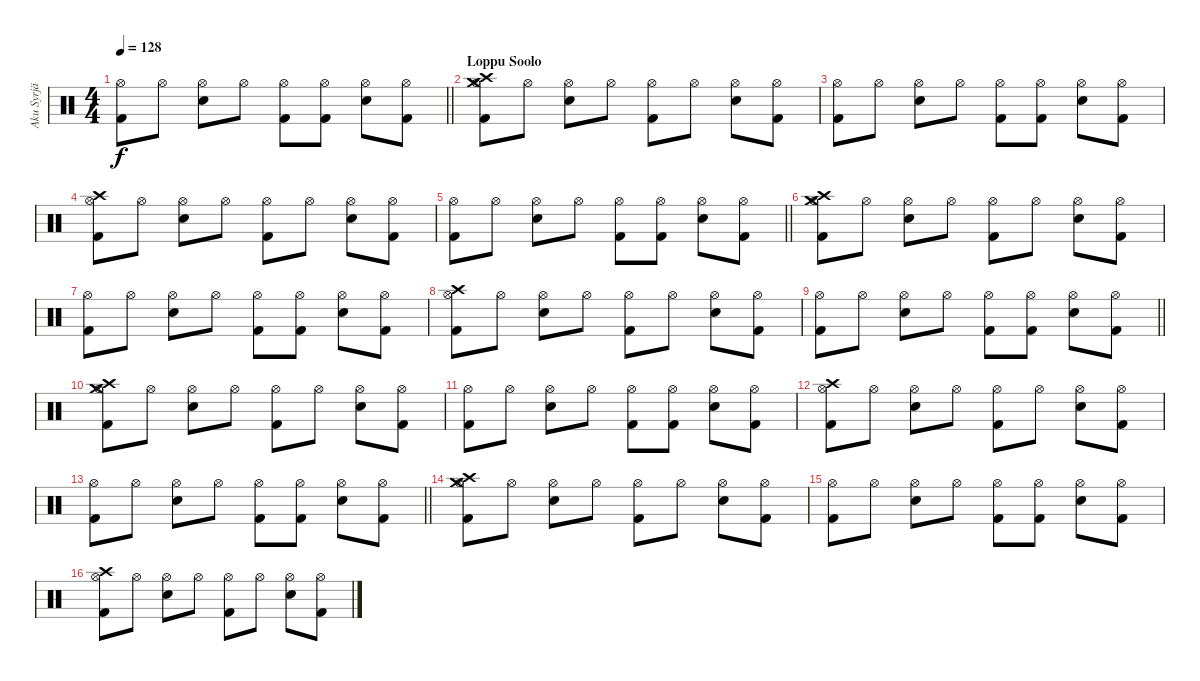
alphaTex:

\track ("Aku Syrjä" "Aku Syrjä") {instrument percussion}
\staff {score}
\articulation defaults
\ts (4 4)
\tempo 128
\clef neutral
\barLineRight lightlight
\ks c
("Hi-Hat (open)" "Kick (hit) 2").8{dy f} "Hi-Hat (open)".8 ("Hi-Hat (open)" "Electric Snare (hit)").8 "Hi-Hat (open)".8 ("Hi-Hat (open)" "Kick (hit) 2").8 ("Hi-Hat (open)" "Kick (hit) 2").8 ("Hi-Hat (open)" "Electric Snare (hit)").8 ("Hi-Hat (open)" "Kick (hit) 2").8 |
\section ("" "Loppu Soolo")
("Crash high (hit)" "Crash medium (hit)" "Hi-Hat (open)" "Kick (hit) 2").8 "Hi-Hat (open)".8 ("Hi-Hat (open)" "Electric Snare (hit)").8 "Hi-Hat (open)".8 ("Hi-Hat (open)" "Kick (hit) 2").8 "Hi-Hat (open)".8 ("Hi-Hat (open)" "Electric Snare (hit)").8 ("Hi-Hat (open)" "Kick (hit) 2").8 |
("Hi-Hat (open)" "Kick (hit) 2").8 "Hi-Hat (open)".8 ("Hi-Hat (open)" "Electric Snare (hit)").8 "Hi-Hat (open)".8 ("Hi-Hat (open)" "Kick (hit) 2").8 ("Hi-Hat (open)" "Kick (hit) 2").8 ("Hi-Hat (open)" "Electric Snare (hit)").8 ("Hi-Hat (open)" "Kick (hit) 2").8 |
("Crash high (hit)" "Hi-Hat (open)" "Kick (hit) 2").8 "Hi-Hat (open)".8 ("Hi-Hat (open)" "Electric Snare (hit)").8 "Hi-Hat (open)".8 ("Hi-Hat (open)" "Kick (hit) 2").8 "Hi-Hat (open)".8 ("Hi-Hat (open)" "Electric Snare (hit)").8 ("Hi-Hat (open)" "Kick (hit) 2").8 |
\barLineRight lightlight
("Hi-Hat (open)" "Kick (hit) 2").8 "Hi-Hat (open)".8 ("Hi-Hat (open)" "Electric Snare (hit)").8 "Hi-Hat (open)".8 ("Hi-Hat (open)" "Kick (hit) 2").8 ("Hi-Hat (open)" "Kick (hit) 2").8 ("Hi-Hat (open)" "Electric Snare (hit)").8 ("Hi-Hat (open)" "Kick (hit) 2").8 |
("Crash high (hit)" "Crash medium (hit)" "Hi-Hat (open)" "Kick (hit) 2").8 "Hi-Hat (open)".8 ("Hi-Hat (open)" "Electric Snare (hit)").8 "Hi-Hat (open)".8 ("Hi-Hat (open)" "Kick (hit) 2").8 "Hi-Hat (open)".8 ("Hi-Hat (open)" "Electric Snare (hit)").8 ("Hi-Hat (open)" "Kick (hit) 2").8 |
("Hi-Hat (open)" "Kick (hit) 2").8 "Hi-Hat (open)".8 ("Hi-Hat (open)" "Electric Snare (hit)").8 "Hi-Hat (open)".8 ("Hi-Hat (open)" "Kick (hit) 2").8 ("Hi-Hat (open)" "Kick (hit) 2").8 ("Hi-Hat (open)" "Electric Snare (hit)").8 ("Hi-Hat (open)" "Kick (hit) 2").8 |
("Crash high (hit)" "Hi-Hat (open)" "Kick (hit) 2").8 "Hi-Hat (open)".8 ("Hi-Hat (open)" "Electric Snare (hit)").8 "Hi-Hat (open)".8 ("Hi-Hat (open)" "Kick (hit) 2").8 "Hi-Hat (open)".8 ("Hi-Hat (open)" "Electric Snare (hit)").8 ("Hi-Hat (open)" "Kick (hit) 2").8 |
\barLineRight lightlight
("Hi-Hat (open)" "Kick (hit) 2").8 "Hi-Hat (open)".8 ("Hi-Hat (open)" "Electric Snare (hit)").8 "Hi-Hat (open)".8 ("Hi-Hat (open)" "Kick (hit) 2").8 ("Hi-Hat (open)" "Kick (hit) 2").8 ("Hi-Hat (open)" "Electric Snare (hit)").8 ("Hi-Hat (open)" "Kick (hit) 2").8 |
("Crash high (hit)" "Crash medium (hit)" "Hi-Hat (open)" "Kick (hit) 2").8 "Hi-Hat (open)".8 ("Hi-Hat (open)" "Electric Snare (hit)").8 "Hi-Hat (open)".8 ("Hi-Hat (open)" "Kick (hit) 2").8 "Hi-Hat (open)".8 ("Hi-Hat (open)" "Electric Snare (hit)").8 ("Hi-Hat (open)" "Kick (hit) 2").8 |
("Hi-Hat (open)" "Kick (hit) 2").8 "Hi-Hat (open)".8 ("Hi-Hat (open)" "Electric Snare (hit)").8 "Hi-Hat (open)".8 ("Hi-Hat (open)" "Kick (hit) 2").8 ("Hi-Hat (open)" "Kick (hit) 2").8 ("Hi-Hat (open)" "Electric Snare (hit)").8 ("Hi-Hat (open)" "Kick (hit) 2").8 |
("Crash high (hit)" "Hi-Hat (open)" "Kick (hit) 2").8 "Hi-Hat (open)".8 ("Hi-Hat (open)" "Electric Snare (hit)").8 "Hi-Hat (open)".8 ("Hi-Hat (open)" "Kick (hit) 2").8 "Hi-Hat (open)".8 ("Hi-Hat (open)" "Electric Snare (hit)").8 ("Hi-Hat (open)" "Kick (hit) 2").8 |
\barLineRight lightlight
("Hi-Hat (open)" "Kick (hit) 2").8 "Hi-Hat (open)".8 ("Hi-Hat (open)" "Electric Snare (hit)").8 "Hi-Hat (open)".8 ("Hi-Hat (open)" "Kick (hit) 2").8 ("Hi-Hat (open)" "Kick (hit) 2").8 ("Hi-Hat (open)" "Electric Snare (hit)").8 ("Hi-Hat (open)" "Kick (hit) 2").8 |
("Crash high (hit)" "Crash medium (hit)" "Hi-Hat (open)" "Kick (hit) 2").8 "Hi-Hat (open)".8 ("Hi-Hat (open)" "Electric Snare (hit)").8 "Hi-Hat (open)".8 ("Hi-Hat (open)" "Kick (hit) 2").8 "Hi-Hat (open)".8 ("Hi-Hat (open)" "Electric Snare (hit)").8 ("Hi-Hat (open)" "Kick (hit) 2").8 |
("Hi-Hat (open)" "Kick (hit) 2").8 "Hi-Hat (open)".8 ("Hi-Hat (open)" "Electric Snare (hit)").8 "Hi-Hat (open)".8 ("Hi-Hat (open)" "Kick (hit) 2").8 ("Hi-Hat (open)" "Kick (hit) 2").8 ("Hi-Hat (open)" "Electric Snare (hit)").8 ("Hi-Hat (open)" "Kick (hit) 2").8 |
("Crash high (hit)" "Hi-Hat (open)" "Kick (hit) 2").8 "Hi-Hat (open)".8 ("Hi-Hat (open)" "Electric Snare (hit)").8 "Hi-Hat (open)".8 ("Hi-Hat (open)" "Kick (hit) 2").8 "Hi-Hat (open)".8 ("Hi-Hat (open)" "Electric Snare (hit)").8 ("Hi-Hat (open)" "Kick (hit) 2").8
